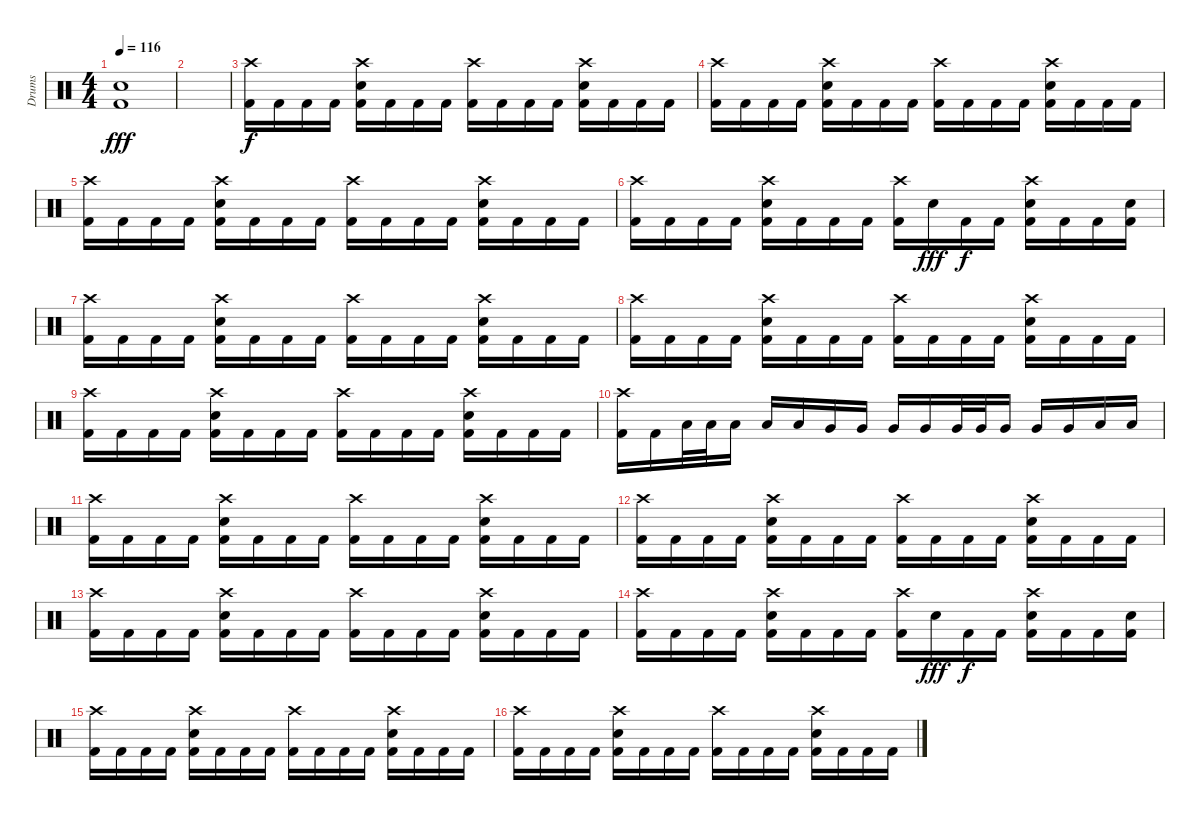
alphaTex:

\track ("Drums" "Drums") {instrument percussion}
\staff {score}
\articulation defaults
\ts (4 4)
\tempo 116
\clef neutral
\ks c
("Electric Snare (hit)" "Kick (hit) 2").1{dy fff} |
|
("Crash high (hit)" "Kick (hit) 2").16{dy f} "Kick (hit) 2".16 "Kick (hit) 2".16 "Kick (hit) 2".16 ("Crash high (hit)" "Electric Snare (hit)" "Kick (hit) 2").16 "Kick (hit) 2".16 "Kick (hit) 2".16 "Kick (hit) 2".16 ("Crash high (hit)" "Kick (hit) 2").16 "Kick (hit) 2".16 "Kick (hit) 2".16 "Kick (hit) 2".16 ("Crash high (hit)" "Electric Snare (hit)" "Kick (hit) 2").16 "Kick (hit) 2".16 "Kick (hit) 2".16 "Kick (hit) 2".16 |
("Crash high (hit)" "Kick (hit) 2").16 "Kick (hit) 2".16 "Kick (hit) 2".16 "Kick (hit) 2".16 ("Crash high (hit)" "Electric Snare (hit)" "Kick (hit) 2").16 "Kick (hit) 2".16 "Kick (hit) 2".16 "Kick (hit) 2".16 ("Crash high (hit)" "Kick (hit) 2").16 "Kick (hit) 2".16 "Kick (hit) 2".16 "Kick (hit) 2".16 ("Crash high (hit)" "Electric Snare (hit)" "Kick (hit) 2").16 "Kick (hit) 2".16 "Kick (hit) 2".16 "Kick (hit) 2".16 |
("Crash high (hit)" "Kick (hit) 2").16 "Kick (hit) 2".16 "Kick (hit) 2".16 "Kick (hit) 2".16 ("Crash high (hit)" "Electric Snare (hit)" "Kick (hit) 2").16 "Kick (hit) 2".16 "Kick (hit) 2".16 "Kick (hit) 2".16 ("Crash high (hit)" "Kick (hit) 2").16 "Kick (hit) 2".16 "Kick (hit) 2".16 "Kick (hit) 2".16 ("Crash high (hit)" "Electric Snare (hit)" "Kick (hit) 2").16 "Kick (hit) 2".16 "Kick (hit) 2".16 "Kick (hit) 2".16 |
("Crash high (hit)" "Kick (hit) 2").16 "Kick (hit) 2".16 "Kick (hit) 2".16 "Kick (hit) 2".16 ("Crash high (hit)" "Electric Snare (hit)" "Kick (hit) 2").16 "Kick (hit) 2".16 "Kick (hit) 2".16 "Kick (hit) 2".16 ("Crash high (hit)" "Kick (hit) 2").16 "Electric Snare (hit)".16{dy fff} "Kick (hit) 2".16{dy f} "Kick (hit) 2".16 ("Crash high (hit)" "Electric Snare (hit)" "Kick (hit) 2").16 "Kick (hit) 2".16 "Kick (hit) 2".16 ("Electric Snare (hit)" "Kick (hit) 2").16 |
("Crash high (hit)" "Kick (hit) 2").16 "Kick (hit) 2".16 "Kick (hit) 2".16 "Kick (hit) 2".16 ("Crash high (hit)" "Electric Snare (hit)" "Kick (hit) 2").16 "Kick (hit) 2".16 "Kick (hit) 2".16 "Kick (hit) 2".16 ("Crash high (hit)" "Kick (hit) 2").16 "Kick (hit) 2".16 "Kick (hit) 2".16 "Kick (hit) 2".16 ("Crash high (hit)" "Electric Snare (hit)" "Kick (hit) 2").16 "Kick (hit) 2".16 "Kick (hit) 2".16 "Kick (hit) 2".16 |
("Crash high (hit)" "Kick (hit) 2").16 "Kick (hit) 2".16 "Kick (hit) 2".16 "Kick (hit) 2".16 ("Crash high (hit)" "Electric Snare (hit)" "Kick (hit) 2").16 "Kick (hit) 2".16 "Kick (hit) 2".16 "Kick (hit) 2".16 ("Crash high (hit)" "Kick (hit) 2").16 "Kick (hit) 2".16 "Kick (hit) 2".16 "Kick (hit) 2".16 ("Crash high (hit)" "Electric Snare (hit)" "Kick (hit) 2").16 "Kick (hit) 2".16 "Kick (hit) 2".16 "Kick (hit) 2".16 |
("Crash high (hit)" "Kick (hit) 2").16 "Kick (hit) 2".16 "Kick (hit) 2".16 "Kick (hit) 2".16 ("Crash high (hit)" "Electric Snare (hit)" "Kick (hit) 2").16 "Kick (hit) 2".16 "Kick (hit) 2".16 "Kick (hit) 2".16 ("Crash high (hit)" "Kick (hit) 2").16 "Kick (hit) 2".16 "Kick (hit) 2".16 "Kick (hit) 2".16 ("Crash high (hit)" "Electric Snare (hit)" "Kick (hit) 2").16 "Kick (hit) 2".16 "Kick (hit) 2".16 "Kick (hit) 2".16 |
("Crash high (hit)" "Kick (hit) 2").16 "Kick (hit) 2".16 "Low Tom (hit)".32 "Low Tom (hit)".32 "Low Tom (hit)".16 "Low Tom (hit)".16 "Low Tom (hit)".16 "Very Low Tom (hit)".16 "Very Low Tom (hit)".16 "Very Low Tom (hit)".16 "Very Low Tom (hit)".16 "Very Low Tom (hit)".32 "Very Low Tom (hit)".32 "Very Low Tom (hit)".16 "Very Low Tom (hit)".16 "Very Low Tom (hit)".16 "Low Floor Tom (hit)".16 "Low Floor Tom (hit)".16 |
("Crash high (hit)" "Kick (hit) 2").16 "Kick (hit) 2".16 "Kick (hit) 2".16 "Kick (hit) 2".16 ("Crash high (hit)" "Electric Snare (hit)" "Kick (hit) 2").16 "Kick (hit) 2".16 "Kick (hit) 2".16 "Kick (hit) 2".16 ("Crash high (hit)" "Kick (hit) 2").16 "Kick (hit) 2".16 "Kick (hit) 2".16 "Kick (hit) 2".16 ("Crash high (hit)" "Electric Snare (hit)" "Kick (hit) 2").16 "Kick (hit) 2".16 "Kick (hit) 2".16 "Kick (hit) 2".16 |
("Crash high (hit)" "Kick (hit) 2").16 "Kick (hit) 2".16 "Kick (hit) 2".16 "Kick (hit) 2".16 ("Crash high (hit)" "Electric Snare (hit)" "Kick (hit) 2").16 "Kick (hit) 2".16 "Kick (hit) 2".16 "Kick (hit) 2".16 ("Crash high (hit)" "Kick (hit) 2").16 "Kick (hit) 2".16 "Kick (hit) 2".16 "Kick (hit) 2".16 ("Crash high (hit)" "Electric Snare (hit)" "Kick (hit) 2").16 "Kick (hit) 2".16 "Kick (hit) 2".16 "Kick (hit) 2".16 |
("Crash high (hit)" "Kick (hit) 2").16 "Kick (hit) 2".16 "Kick (hit) 2".16 "Kick (hit) 2".16 ("Crash high (hit)" "Electric Snare (hit)" "Kick (hit) 2").16 "Kick (hit) 2".16 "Kick (hit) 2".16 "Kick (hit) 2".16 ("Crash high (hit)" "Kick (hit) 2").16 "Kick (hit) 2".16 "Kick (hit) 2".16 "Kick (hit) 2".16 ("Crash high (hit)" "Electric Snare (hit)" "Kick (hit) 2").16 "Kick (hit) 2".16 "Kick (hit) 2".16 "Kick (hit) 2".16 |
("Crash high (hit)" "Kick (hit) 2").16 "Kick (hit) 2".16 "Kick (hit) 2".16 "Kick (hit) 2".16 ("Crash high (hit)" "Electric Snare (hit)" "Kick (hit) 2").16 "Kick (hit) 2".16 "Kick (hit) 2".16 "Kick (hit) 2".16 ("Crash high (hit)" "Kick (hit) 2").16 "Electric Snare (hit)".16{dy fff} "Kick (hit) 2".16{dy f} "Kick (hit) 2".16 ("Crash high (hit)" "Electric Snare (hit)" "Kick (hit) 2").16 "Kick (hit) 2".16 "Kick (hit) 2".16 ("Electric Snare (hit)" "Kick (hit) 2").16 |
("Crash high (hit)" "Kick (hit) 2").16 "Kick (hit) 2".16 "Kick (hit) 2".16 "Kick (hit) 2".16 ("Crash high (hit)" "Electric Snare (hit)" "Kick (hit) 2").16 "Kick (hit) 2".16 "Kick (hit) 2".16 "Kick (hit) 2".16 ("Crash high (hit)" "Kick (hit) 2").16 "Kick (hit) 2".16 "Kick (hit) 2".16 "Kick (hit) 2".16 ("Crash high (hit)" "Electric Snare (hit)" "Kick (hit) 2").16 "Kick (hit) 2".16 "Kick (hit) 2".16 "Kick (hit) 2".16 |
("Crash high (hit)" "Kick (hit) 2").16 "Kick (hit) 2".16 "Kick (hit) 2".16 "Kick (hit) 2".16 ("Crash high (hit)" "Electric Snare (hit)" "Kick (hit) 2").16 "Kick (hit) 2".16 "Kick (hit) 2".16 "Kick (hit) 2".16 ("Crash high (hit)" "Kick (hit) 2").16 "Kick (hit) 2".16 "Kick (hit) 2".16 "Kick (hit) 2".16 ("Crash high (hit)" "Electric Snare (hit)" "Kick (hit) 2").16 "Kick (hit) 2".16 "Kick (hit) 2".16 "Kick (hit) 2".16
